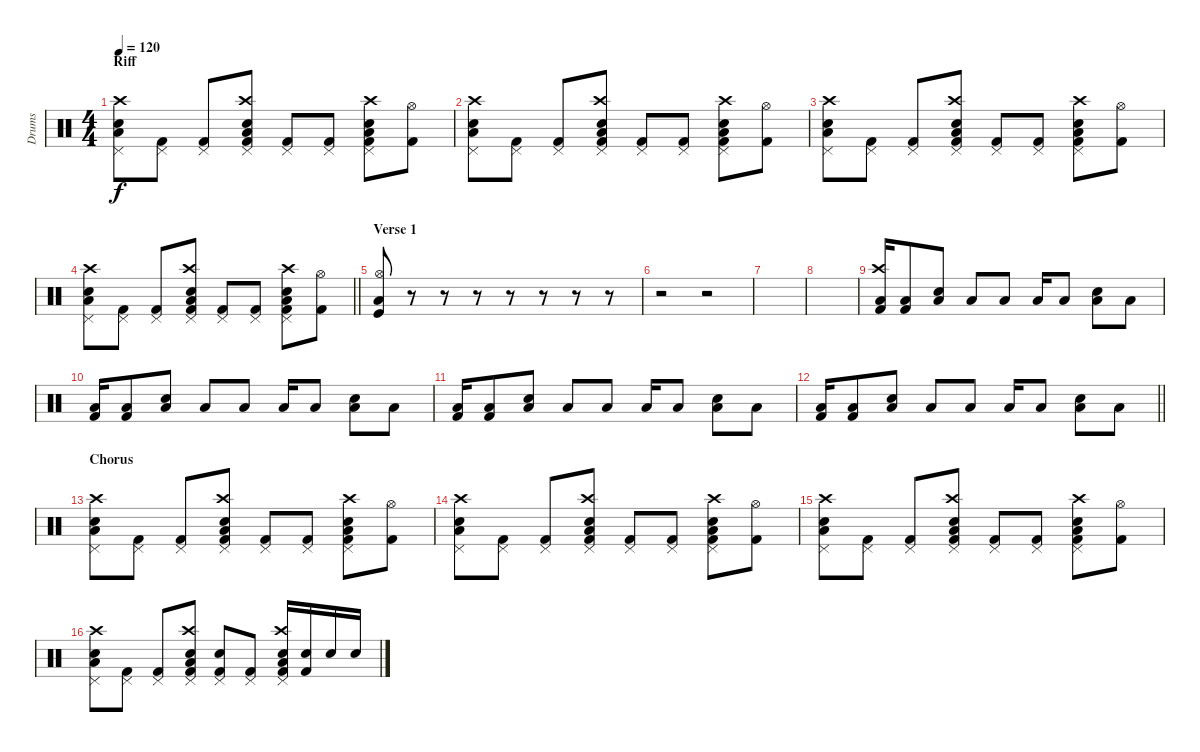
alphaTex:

\track ("Drums" "Drums") {instrument percussion}
\staff {score}
\articulation defaults
\ts (4 4)
\section ("" "Riff")
\tempo 120
\clef neutral
\ks c
("Electric Snare (hit)" "Low Tom (hit)" "Pedal Hi-Hat (hit)" "Crash high (hit)").8{dy f} ("Kick (hit) 2" "Pedal Hi-Hat (hit)").8 ("Kick (hit) 2" "Pedal Hi-Hat (hit)").8 ("Kick (hit) 2" "Electric Snare (hit)" "Low Tom (hit)" "Pedal Hi-Hat (hit)" "Crash high (hit)").8 ("Kick (hit) 2" "Pedal Hi-Hat (hit)").8 ("Kick (hit) 2" "Pedal Hi-Hat (hit)").8 ("Kick (hit) 2" "Electric Snare (hit)" "Low Tom (hit)" "Pedal Hi-Hat (hit)" "Crash high (hit)").8 ("Kick (hit) 2" "Hi-Hat (open)").8 |
("Electric Snare (hit)" "Low Tom (hit)" "Pedal Hi-Hat (hit)" "Crash high (hit)").8 ("Kick (hit) 2" "Pedal Hi-Hat (hit)").8 ("Kick (hit) 2" "Pedal Hi-Hat (hit)").8 ("Kick (hit) 2" "Electric Snare (hit)" "Low Tom (hit)" "Pedal Hi-Hat (hit)" "Crash high (hit)").8 ("Kick (hit) 2" "Pedal Hi-Hat (hit)").8 ("Kick (hit) 2" "Pedal Hi-Hat (hit)").8 ("Kick (hit) 2" "Electric Snare (hit)" "Low Tom (hit)" "Pedal Hi-Hat (hit)" "Crash high (hit)").8 ("Kick (hit) 2" "Hi-Hat (open)").8 |
("Electric Snare (hit)" "Low Tom (hit)" "Pedal Hi-Hat (hit)" "Crash high (hit)").8 ("Kick (hit) 2" "Pedal Hi-Hat (hit)").8 ("Kick (hit) 2" "Pedal Hi-Hat (hit)").8 ("Kick (hit) 2" "Electric Snare (hit)" "Low Tom (hit)" "Pedal Hi-Hat (hit)" "Crash high (hit)").8 ("Kick (hit) 2" "Pedal Hi-Hat (hit)").8 ("Kick (hit) 2" "Pedal Hi-Hat (hit)").8 ("Kick (hit) 2" "Electric Snare (hit)" "Low Tom (hit)" "Pedal Hi-Hat (hit)" "Crash high (hit)").8 ("Kick (hit) 2" "Hi-Hat (open)").8 |
\barLineRight lightlight
("Electric Snare (hit)" "Low Tom (hit)" "Pedal Hi-Hat (hit)" "Crash high (hit)").8 ("Kick (hit) 2" "Pedal Hi-Hat (hit)").8 ("Kick (hit) 2" "Pedal Hi-Hat (hit)").8 ("Kick (hit) 2" "Electric Snare (hit)" "Low Tom (hit)" "Pedal Hi-Hat (hit)" "Crash high (hit)").8 ("Kick (hit) 2" "Pedal Hi-Hat (hit)").8 ("Kick (hit) 2" "Pedal Hi-Hat (hit)").8 ("Kick (hit) 2" "Electric Snare (hit)" "Low Tom (hit)" "Pedal Hi-Hat (hit)" "Crash high (hit)").8 ("Kick (hit) 2" "Hi-Hat (open)").8 |
\section ("" "Verse 1")
("Hi-Hat (open)" "Kick (hit)" "Low Tom (hit)").8 r.8 r.8 r.8 r.8 r.8 r.8 r.8 |
r.2 r.2 |
|
|
("Crash high (hit)" "Kick (hit) 2" "Low Tom (hit)").16 ("Kick (hit) 2" "Low Tom (hit)").8 ("Electric Snare (hit)" "Low Tom (hit)").8 "Low Tom (hit)".8 "Low Tom (hit)".8 "Low Tom (hit)".16 "Low Tom (hit)".8 ("Electric Snare (hit)" "Low Tom (hit)").8 "Low Tom (hit)".8 |
("Kick (hit) 2" "Low Tom (hit)").16 ("Kick (hit) 2" "Low Tom (hit)").8 ("Electric Snare (hit)" "Low Tom (hit)").8 "Low Tom (hit)".8 "Low Tom (hit)".8 "Low Tom (hit)".16 "Low Tom (hit)".8 ("Electric Snare (hit)" "Low Tom (hit)").8 "Low Tom (hit)".8 |
("Kick (hit) 2" "Low Tom (hit)").16 ("Kick (hit) 2" "Low Tom (hit)").8 ("Electric Snare (hit)" "Low Tom (hit)").8 "Low Tom (hit)".8 "Low Tom (hit)".8 "Low Tom (hit)".16 "Low Tom (hit)".8 ("Electric Snare (hit)" "Low Tom (hit)").8 "Low Tom (hit)".8 |
\barLineRight lightlight
("Kick (hit) 2" "Low Tom (hit)").16 ("Kick (hit) 2" "Low Tom (hit)").8 ("Electric Snare (hit)" "Low Tom (hit)").8 "Low Tom (hit)".8 "Low Tom (hit)".8 "Low Tom (hit)".16 "Low Tom (hit)".8 ("Electric Snare (hit)" "Low Tom (hit)").8 "Low Tom (hit)".8 |
\section ("" "Chorus")
("Electric Snare (hit)" "Low Tom (hit)" "Pedal Hi-Hat (hit)" "Crash high (hit)").8 ("Kick (hit) 2" "Pedal Hi-Hat (hit)").8 ("Kick (hit) 2" "Pedal Hi-Hat (hit)").8 ("Kick (hit) 2" "Electric Snare (hit)" "Low Tom (hit)" "Pedal Hi-Hat (hit)" "Crash high (hit)").8 ("Kick (hit) 2" "Pedal Hi-Hat (hit)").8 ("Kick (hit) 2" "Pedal Hi-Hat (hit)").8 ("Kick (hit) 2" "Electric Snare (hit)" "Low Tom (hit)" "Pedal Hi-Hat (hit)" "Crash high (hit)").8 ("Kick (hit) 2" "Hi-Hat (open)").8 |
("Electric Snare (hit)" "Low Tom (hit)" "Pedal Hi-Hat (hit)" "Crash high (hit)").8 ("Kick (hit) 2" "Pedal Hi-Hat (hit)").8 ("Kick (hit) 2" "Pedal Hi-Hat (hit)").8 ("Kick (hit) 2" "Electric Snare (hit)" "Low Tom (hit)" "Pedal Hi-Hat (hit)" "Crash high (hit)").8 ("Kick (hit) 2" "Pedal Hi-Hat (hit)").8 ("Kick (hit) 2" "Pedal Hi-Hat (hit)").8 ("Kick (hit) 2" "Electric Snare (hit)" "Low Tom (hit)" "Pedal Hi-Hat (hit)" "Crash high (hit)").8 ("Kick (hit) 2" "Hi-Hat (open)").8 |
("Electric Snare (hit)" "Low Tom (hit)" "Pedal Hi-Hat (hit)" "Crash high (hit)").8 ("Kick (hit) 2" "Pedal Hi-Hat (hit)").8 ("Kick (hit) 2" "Pedal Hi-Hat (hit)").8 ("Kick (hit) 2" "Electric Snare (hit)" "Low Tom (hit)" "Pedal Hi-Hat (hit)" "Crash high (hit)").8 ("Kick (hit) 2" "Pedal Hi-Hat (hit)").8 ("Kick (hit) 2" "Pedal Hi-Hat (hit)").8 ("Kick (hit) 2" "Electric Snare (hit)" "Low Tom (hit)" "Pedal Hi-Hat (hit)" "Crash high (hit)").8 ("Kick (hit) 2" "Hi-Hat (open)").8 |
("Electric Snare (hit)" "Low Tom (hit)" "Pedal Hi-Hat (hit)" "Crash high (hit)").8 ("Kick (hit) 2" "Pedal Hi-Hat (hit)").8 ("Kick (hit) 2" "Pedal Hi-Hat (hit)").8 ("Kick (hit) 2" "Electric Snare (hit)" "Low Tom (hit)" "Pedal Hi-Hat (hit)" "Crash high (hit)").8 ("Kick (hit) 2" "Pedal Hi-Hat (hit)" "Electric Snare (hit)").8 ("Kick (hit) 2" "Pedal Hi-Hat (hit)").8 ("Kick (hit) 2" "Electric Snare (hit)" "Low Tom (hit)" "Pedal Hi-Hat (hit)" "Crash high (hit)").16 ("Kick (hit) 2" "Electric Snare (hit)").16 "Electric Snare (hit)".16 "Electric Snare (hit)".16
